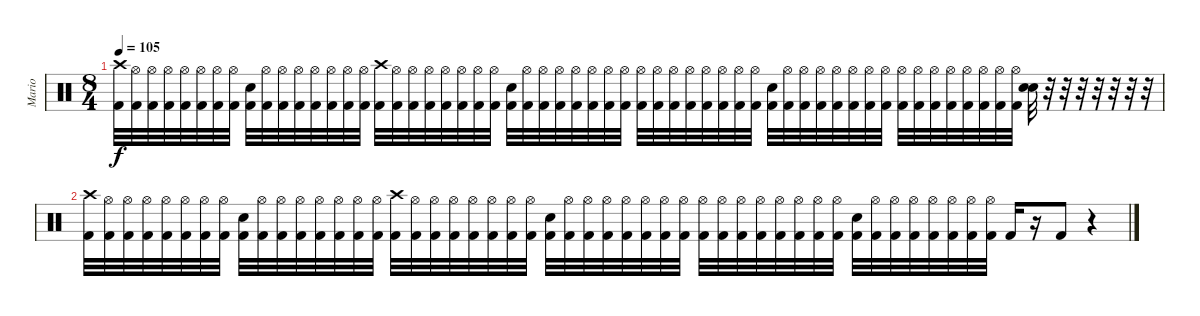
\track ("Mario" "Mario") {instrument percussion}
\staff {score}
\articulation defaults
\ts (8 4)
\section ("" "")
\tempo 105
\clef neutral
\ks c
("Crash high (hit)" "Kick (hit) 2").32{dy f} ("Hi-Hat (open)" "Kick (hit) 2").32 ("Hi-Hat (open)" "Kick (hit) 2").32 ("Hi-Hat (open)" "Kick (hit) 2").32 ("Hi-Hat (open)" "Kick (hit) 2").32 ("Hi-Hat (open)" "Kick (hit) 2").32 ("Hi-Hat (open)" "Kick (hit) 2").32 ("Hi-Hat (open)" "Kick (hit) 2").32 ("Snare (hit) 2" "Kick (hit) 2").32 ("Hi-Hat (open)" "Kick (hit) 2").32 ("Hi-Hat (open)" "Kick (hit) 2").32 ("Hi-Hat (open)" "Kick (hit) 2").32 ("Hi-Hat (open)" "Kick (hit) 2").32 ("Hi-Hat (open)" "Kick (hit) 2").32 ("Hi-Hat (open)" "Kick (hit) 2").32 ("Hi-Hat (open)" "Kick (hit) 2").32 ("Crash high (hit)" "Kick (hit) 2").32 ("Hi-Hat (open)" "Kick (hit) 2").32 ("Hi-Hat (open)" "Kick (hit) 2").32 ("Hi-Hat (open)" "Kick (hit) 2").32 ("Hi-Hat (open)" "Kick (hit) 2").32 ("Hi-Hat (open)" "Kick (hit) 2").32 ("Hi-Hat (open)" "Kick (hit) 2").32 ("Hi-Hat (open)" "Kick (hit) 2").32 ("Snare (hit) 2" "Kick (hit) 2").32 ("Hi-Hat (open)" "Kick (hit) 2").32 ("Hi-Hat (open)" "Kick (hit) 2").32 ("Hi-Hat (open)" "Kick (hit) 2").32 ("Hi-Hat (open)" "Kick (hit) 2").32 ("Hi-Hat (open)" "Kick (hit) 2").32 ("Hi-Hat (open)" "Kick (hit) 2").32 ("Hi-Hat (open)" "Kick (hit) 2").32 ("Hi-Hat (open)" "Kick (hit) 2").32 ("Hi-Hat (open)" "Kick (hit) 2").32 ("Hi-Hat (open)" "Kick (hit) 2").32 ("Hi-Hat (open)" "Kick (hit) 2").32 ("Hi-Hat (open)" "Kick (hit) 2").32 ("Hi-Hat (open)" "Kick (hit) 2").32 ("Hi-Hat (open)" "Kick (hit) 2").32 ("Hi-Hat (open)" "Kick (hit) 2").32 ("Snare (hit) 2" "Kick (hit) 2").32 ("Hi-Hat (open)" "Kick (hit) 2").32 ("Hi-Hat (open)" "Kick (hit) 2").32 ("Hi-Hat (open)" "Kick (hit) 2").32 ("Hi-Hat (open)" "Kick (hit) 2").32 ("Hi-Hat (open)" "Kick (hit) 2").32 ("Hi-Hat (open)" "Kick (hit) 2").32 ("Hi-Hat (open)" "Kick (hit) 2").32 ("Hi-Hat (open)" "Kick (hit) 2").32 ("Hi-Hat (open)" "Kick (hit) 2").32 ("Hi-Hat (open)" "Kick (hit) 2").32 ("Hi-Hat (open)" "Kick (hit) 2").32 ("Hi-Hat (open)" "Kick (hit) 2").32 ("Hi-Hat (open)" "Kick (hit) 2").32 ("Hi-Hat (open)" "Kick (hit) 2").32 ("Hi-Hat (open)" "Kick (hit) 2").32 ("Snare (hit) 2" "Snare (hit) 2").32 r.32 r.32 r.32 r.32 r.32 r.32 r.32 |
("Crash high (hit)" "Kick (hit) 2").32 ("Hi-Hat (open)" "Kick (hit) 2").32 ("Hi-Hat (open)" "Kick (hit) 2").32 ("Hi-Hat (open)" "Kick (hit) 2").32 ("Hi-Hat (open)" "Kick (hit) 2").32 ("Hi-Hat (open)" "Kick (hit) 2").32 ("Hi-Hat (open)" "Kick (hit) 2").32 ("Hi-Hat (open)" "Kick (hit) 2").32 ("Snare (hit) 2" "Kick (hit) 2").32 ("Hi-Hat (open)" "Kick (hit) 2").32 ("Hi-Hat (open)" "Kick (hit) 2").32 ("Hi-Hat (open)" "Kick (hit) 2").32 ("Hi-Hat (open)" "Kick (hit) 2").32 ("Hi-Hat (open)" "Kick (hit) 2").32 ("Hi-Hat (open)" "Kick (hit) 2").32 ("Hi-Hat (open)" "Kick (hit) 2").32 ("Crash high (hit)" "Kick (hit) 2").32 ("Hi-Hat (open)" "Kick (hit) 2").32 ("Hi-Hat (open)" "Kick (hit) 2").32 ("Hi-Hat (open)" "Kick (hit) 2").32 ("Hi-Hat (open)" "Kick (hit) 2").32 ("Hi-Hat (open)" "Kick (hit) 2").32 ("Hi-Hat (open)" "Kick (hit) 2").32 ("Hi-Hat (open)" "Kick (hit) 2").32 ("Snare (hit) 2" "Kick (hit) 2").32 ("Hi-Hat (open)" "Kick (hit) 2").32 ("Hi-Hat (open)" "Kick (hit) 2").32 ("Hi-Hat (open)" "Kick (hit) 2").32 ("Hi-Hat (open)" "Kick (hit) 2").32 ("Hi-Hat (open)" "Kick (hit) 2").32 ("Hi-Hat (open)" "Kick (hit) 2").32 ("Hi-Hat (open)" "Kick (hit) 2").32 ("Hi-Hat (open)" "Kick (hit) 2").32 ("Hi-Hat (open)" "Kick (hit) 2").32 ("Hi-Hat (open)" "Kick (hit) 2").32 ("Hi-Hat (open)" "Kick (hit) 2").32 ("Hi-Hat (open)" "Kick (hit) 2").32 ("Hi-Hat (open)" "Kick (hit) 2").32 ("Hi-Hat (open)" "Kick (hit) 2").32 ("Hi-Hat (open)" "Kick (hit) 2").32 ("Snare (hit) 2" "Kick (hit) 2").32 ("Hi-Hat (open)" "Kick (hit) 2").32 ("Hi-Hat (open)" "Kick (hit) 2").32 ("Hi-Hat (open)" "Kick (hit) 2").32 ("Hi-Hat (open)" "Kick (hit) 2").32 ("Hi-Hat (open)" "Kick (hit) 2").32 ("Hi-Hat (open)" "Kick (hit) 2").32 ("Hi-Hat (open)" "Kick (hit) 2").32 "Kick (hit) 2".16 r.16 "Kick (hit) 2".8 r.4
